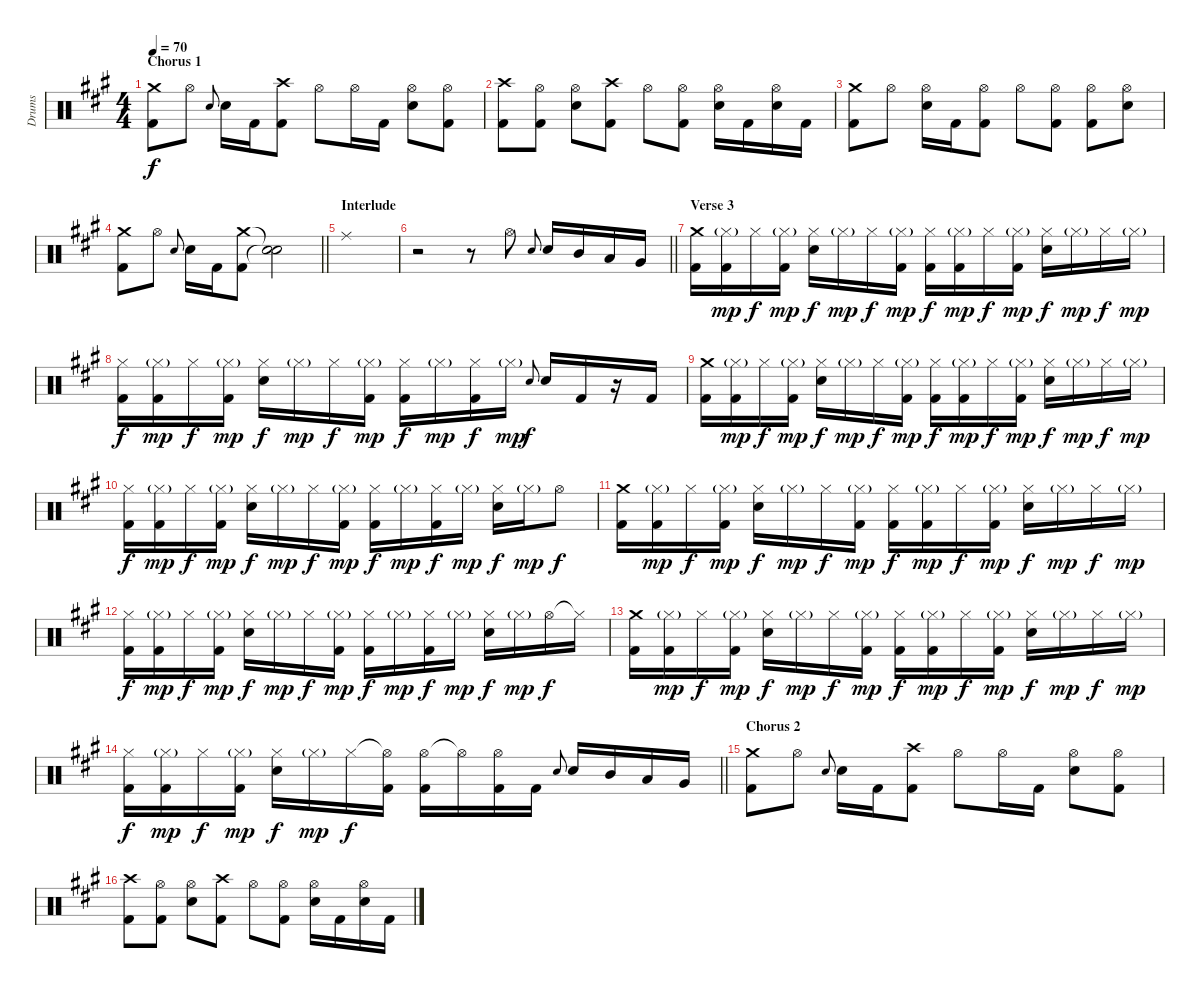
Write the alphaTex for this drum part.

\track ("Drums" "Drums") {instrument percussion}
\staff {score}
\articulation defaults
\ts (4 4)
\section ("" "Chorus 1")
\tempo 70
\clef neutral
\ks a
("Crash medium (hit)" "Kick (hit) 2").8{dy f} "Hi-Hat (open)".8 "Snare (hit) 2".8{gr onbeat} "Snare (hit) 2".16 "Kick (hit) 2".16 ("Crash high (hit)" "Kick (hit) 2").8 "Hi-Hat (open)".8 "Hi-Hat (open)".16 "Kick (hit) 2".16 ("Hi-Hat (open)" "Snare (hit) 2").8 ("Hi-Hat (open)" "Kick (hit) 2").8 |
("Crash high (hit)" "Kick (hit) 2").8 ("Hi-Hat (open)" "Kick (hit) 2").8 ("Hi-Hat (open)" "Snare (hit) 2").8 ("Crash high (hit)" "Kick (hit) 2").8 "Hi-Hat (open)".8 ("Hi-Hat (open)" "Kick (hit) 2").8 ("Hi-Hat (open)" "Snare (hit) 2").16 "Kick (hit) 2".16 ("Hi-Hat (open)" "Snare (hit) 2").16 "Kick (hit) 2".16 |
("Crash medium (hit)" "Kick (hit) 2").8 "Hi-Hat (open)".8 ("Hi-Hat (open)" "Snare (hit) 2").16 "Kick (hit) 2".16 ("Hi-Hat (open)" "Kick (hit) 2").8 "Hi-Hat (open)".8 ("Hi-Hat (open)" "Kick (hit) 2").8 ("Hi-Hat (open)" "Kick (hit) 2").8 ("Hi-Hat (open)" "Snare (hit) 2").8 |
\barLineRight lightlight
("Crash medium (hit)" "Kick (hit) 2").8 "Hi-Hat (open)".8 "Snare (hit) 2".8{gr onbeat} "Snare (hit) 2".16 "Kick (hit) 2".16 ("Crash medium (hit)" "Kick (hit) 2").8 ("Snare (hit)"{t} "Snare (hit)"{t}).2 |
\section ("" "Interlude")
"Ride (middle)".1 |
\barLineRight lightlight
r.2 r.8 "Hi-Hat (open)".8 "Snare (hit) 2".8{gr onbeat} "Snare (hit) 2".16 "Mid Tom (hit)".16 "Low Tom (hit)".16 "Very Low Tom (hit)".16 |
\section ("" "Verse 3")
("Crash medium (hit)" "Kick (hit) 2").16 ("Hi-Hat (closed)"{g} "Kick (hit) 2").16{dy mp} "Hi-Hat (closed)".16{dy f} ("Hi-Hat (closed)"{g} "Kick (hit) 2").16{dy mp} ("Hi-Hat (closed)" "Snare (hit) 2").16{dy f} "Hi-Hat (closed)"{g}.16{dy mp} "Hi-Hat (closed)".16{dy f} ("Hi-Hat (closed)"{g} "Kick (hit) 2").16{dy mp} ("Hi-Hat (closed)" "Kick (hit) 2").16{dy f} ("Hi-Hat (closed)"{g} "Kick (hit) 2").16{dy mp} "Hi-Hat (closed)".16{dy f} ("Hi-Hat (closed)"{g} "Kick (hit) 2").16{dy mp} ("Hi-Hat (closed)" "Snare (hit) 2").16{dy f} "Hi-Hat (closed)"{g}.16{dy mp} "Hi-Hat (closed)".16{dy f} "Hi-Hat (closed)"{g}.16{dy mp} |
("Hi-Hat (closed)" "Kick (hit) 2").16{dy f} ("Hi-Hat (closed)"{g} "Kick (hit) 2").16{dy mp} "Hi-Hat (closed)".16{dy f} ("Hi-Hat (closed)"{g} "Kick (hit) 2").16{dy mp} ("Hi-Hat (closed)" "Snare (hit) 2").16{dy f} "Hi-Hat (closed)"{g}.16{dy mp} "Hi-Hat (closed)".16{dy f} ("Hi-Hat (closed)"{g} "Kick (hit) 2").16{dy mp} ("Hi-Hat (closed)" "Kick (hit) 2").16{dy f} "Hi-Hat (closed)"{g}.16{dy mp} ("Hi-Hat (closed)" "Kick (hit) 2").16{dy f} "Hi-Hat (closed)"{g}.16{dy mp} "Snare (hit) 2".8{gr onbeat dy f} "Snare (hit) 2".16 "Kick (hit) 2".16 r.16 "Kick (hit) 2".16 |
("Crash medium (hit)" "Kick (hit) 2").16 ("Hi-Hat (closed)"{g} "Kick (hit) 2").16{dy mp} "Hi-Hat (closed)".16{dy f} ("Hi-Hat (closed)"{g} "Kick (hit) 2").16{dy mp} ("Hi-Hat (closed)" "Snare (hit) 2").16{dy f} "Hi-Hat (closed)"{g}.16{dy mp} "Hi-Hat (closed)".16{dy f} ("Hi-Hat (closed)"{g} "Kick (hit) 2").16{dy mp} ("Hi-Hat (closed)" "Kick (hit) 2").16{dy f} ("Hi-Hat (closed)"{g} "Kick (hit) 2").16{dy mp} "Hi-Hat (closed)".16{dy f} ("Hi-Hat (closed)"{g} "Kick (hit) 2").16{dy mp} ("Hi-Hat (closed)" "Snare (hit) 2").16{dy f} "Hi-Hat (closed)"{g}.16{dy mp} "Hi-Hat (closed)".16{dy f} "Hi-Hat (closed)"{g}.16{dy mp} |
("Hi-Hat (closed)" "Kick (hit) 2").16{dy f} ("Hi-Hat (closed)"{g} "Kick (hit) 2").16{dy mp} "Hi-Hat (closed)".16{dy f} ("Hi-Hat (closed)"{g} "Kick (hit) 2").16{dy mp} ("Hi-Hat (closed)" "Snare (hit) 2").16{dy f} "Hi-Hat (closed)"{g}.16{dy mp} "Hi-Hat (closed)".16{dy f} ("Hi-Hat (closed)"{g} "Kick (hit) 2").16{dy mp} ("Hi-Hat (closed)" "Kick (hit) 2").16{dy f} "Hi-Hat (closed)"{g}.16{dy mp} ("Hi-Hat (closed)" "Kick (hit) 2").16{dy f} "Hi-Hat (closed)"{g}.16{dy mp} ("Hi-Hat (closed)" "Snare (hit) 2").16{dy f} "Hi-Hat (closed)"{g}.16{dy mp} "Hi-Hat (open)".8{dy f} |
("Crash medium (hit)" "Kick (hit) 2").16 ("Hi-Hat (closed)"{g} "Kick (hit) 2").16{dy mp} "Hi-Hat (closed)".16{dy f} ("Hi-Hat (closed)"{g} "Kick (hit) 2").16{dy mp} ("Hi-Hat (closed)" "Snare (hit) 2").16{dy f} "Hi-Hat (closed)"{g}.16{dy mp} "Hi-Hat (closed)".16{dy f} ("Hi-Hat (closed)"{g} "Kick (hit) 2").16{dy mp} ("Hi-Hat (closed)" "Kick (hit) 2").16{dy f} ("Hi-Hat (closed)"{g} "Kick (hit) 2").16{dy mp} "Hi-Hat (closed)".16{dy f} ("Hi-Hat (closed)"{g} "Kick (hit) 2").16{dy mp} ("Hi-Hat (closed)" "Snare (hit) 2").16{dy f} "Hi-Hat (closed)"{g}.16{dy mp} "Hi-Hat (closed)".16{dy f} "Hi-Hat (closed)"{g}.16{dy mp} |
("Hi-Hat (closed)" "Kick (hit) 2").16{dy f} ("Hi-Hat (closed)"{g} "Kick (hit) 2").16{dy mp} "Hi-Hat (closed)".16{dy f} ("Hi-Hat (closed)"{g} "Kick (hit) 2").16{dy mp} ("Hi-Hat (closed)" "Snare (hit) 2").16{dy f} "Hi-Hat (closed)"{g}.16{dy mp} "Hi-Hat (closed)".16{dy f} ("Hi-Hat (closed)"{g} "Kick (hit) 2").16{dy mp} ("Hi-Hat (closed)" "Kick (hit) 2").16{dy f} "Hi-Hat (closed)"{g}.16{dy mp} ("Hi-Hat (closed)" "Kick (hit) 2").16{dy f} "Hi-Hat (closed)"{g}.16{dy mp} ("Hi-Hat (closed)" "Snare (hit) 2").16{dy f} "Hi-Hat (closed)"{g}.16{dy mp} "Hi-Hat (open)".16{dy f} "Hi-Hat (closed)"{t}.16 |
("Crash medium (hit)" "Kick (hit) 2").16 ("Hi-Hat (closed)"{g} "Kick (hit) 2").16{dy mp} "Hi-Hat (closed)".16{dy f} ("Hi-Hat (closed)"{g} "Kick (hit) 2").16{dy mp} ("Hi-Hat (closed)" "Snare (hit) 2").16{dy f} "Hi-Hat (closed)"{g}.16{dy mp} "Hi-Hat (closed)".16{dy f} ("Hi-Hat (closed)"{g} "Kick (hit) 2").16{dy mp} ("Hi-Hat (closed)" "Kick (hit) 2").16{dy f} ("Hi-Hat (closed)"{g} "Kick (hit) 2").16{dy mp} "Hi-Hat (closed)".16{dy f} ("Hi-Hat (closed)"{g} "Kick (hit) 2").16{dy mp} ("Hi-Hat (closed)" "Snare (hit) 2").16{dy f} "Hi-Hat (closed)"{g}.16{dy mp} "Hi-Hat (closed)".16{dy f} "Hi-Hat (closed)"{g}.16{dy mp} |
\barLineRight lightlight
("Hi-Hat (closed)" "Kick (hit) 2").16{dy f} ("Hi-Hat (closed)"{g} "Kick (hit) 2").16{dy mp} "Hi-Hat (closed)".16{dy f} ("Hi-Hat (closed)"{g} "Kick (hit) 2").16{dy mp} ("Hi-Hat (closed)" "Snare (hit) 2").16{dy f} "Hi-Hat (closed)"{g}.16{dy mp} "Hi-Hat (closed)".16{dy f} ("Hi-Hat (open)"{t} "Kick (hit) 2").16 ("Hi-Hat (open)" "Kick (hit) 2").16 "Hi-Hat (open)"{t}.16 ("Hi-Hat (open)" "Kick (hit) 2").16 "Kick (hit) 2".16 "Snare (hit) 2".8{gr onbeat} "Snare (hit) 2".16 "Mid Tom (hit)".16 "Low Tom (hit)".16 "Very Low Tom (hit)".16 |
\section ("" "Chorus 2")
("Crash medium (hit)" "Kick (hit) 2").8 "Hi-Hat (open)".8 "Snare (hit) 2".8{gr onbeat} "Snare (hit) 2".16 "Kick (hit) 2".16 ("Crash high (hit)" "Kick (hit) 2").8 "Hi-Hat (open)".8 "Hi-Hat (open)".16 "Kick (hit) 2".16 ("Hi-Hat (open)" "Snare (hit) 2").8 ("Hi-Hat (open)" "Kick (hit) 2").8 |
("Crash high (hit)" "Kick (hit) 2").8 ("Hi-Hat (open)" "Kick (hit) 2").8 ("Hi-Hat (open)" "Snare (hit) 2").8 ("Crash high (hit)" "Kick (hit) 2").8 "Hi-Hat (open)".8 ("Hi-Hat (open)" "Kick (hit) 2").8 ("Hi-Hat (open)" "Snare (hit) 2").16 "Kick (hit) 2".16 ("Hi-Hat (open)" "Snare (hit) 2").16 "Kick (hit) 2".16
